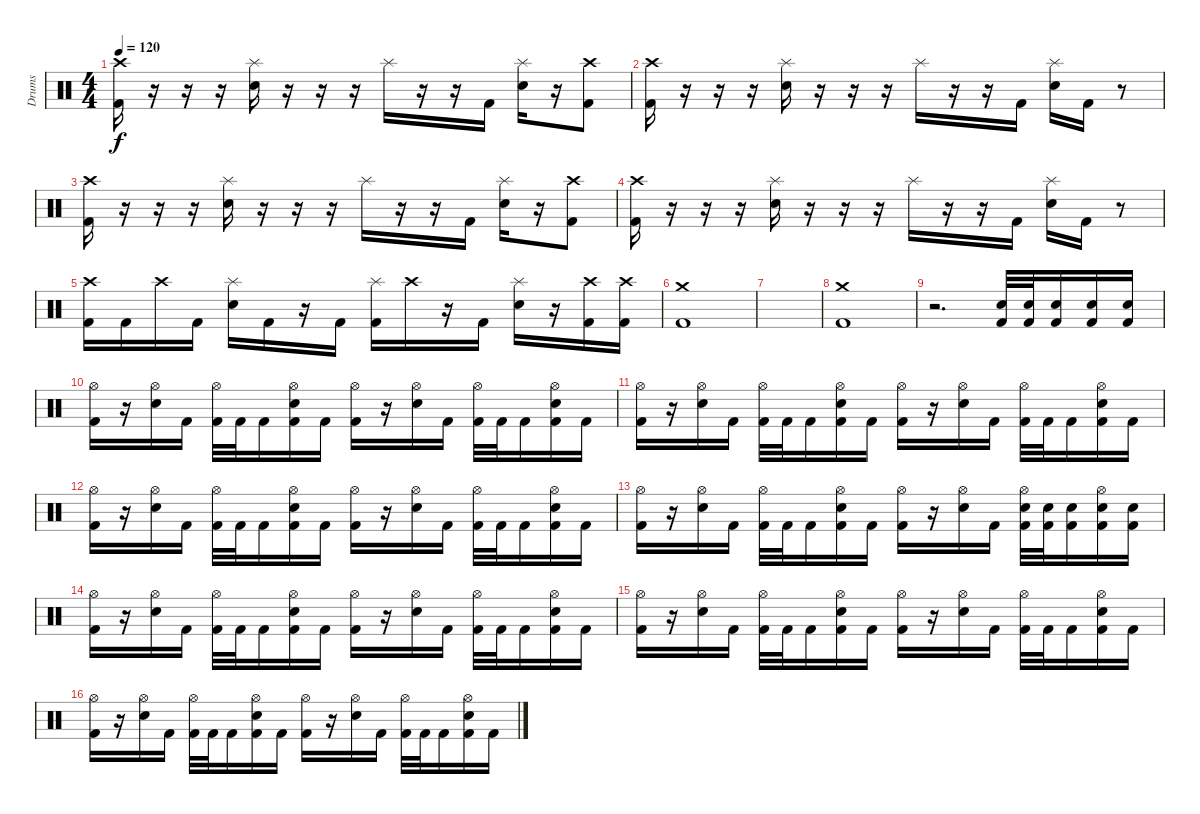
\track ("Drums" "Drums") {instrument percussion}
\staff {score}
\articulation defaults
\ts (4 4)
\tempo 120
\clef neutral
\ks c
("Crash high (hit)" "Kick (hit) 2").16{dy f} r.16 r.16 r.16 ("Splash (hit)" "Snare (hit) 2").16 r.16 r.16 r.16 "Splash (hit)".16 r.16 r.16 "Kick (hit) 2".16 ("Splash (hit)" "Snare (hit) 2").16 r.16 ("Crash high (hit)" "Kick (hit) 2").8 |
("Crash high (hit)" "Kick (hit) 2").16 r.16 r.16 r.16 ("Splash (hit)" "Snare (hit) 2").16 r.16 r.16 r.16 "Splash (hit)".16 r.16 r.16 "Kick (hit) 2".16 ("Splash (hit)" "Snare (hit) 2").16 "Kick (hit) 2".16 r.8 |
("Crash high (hit)" "Kick (hit) 2").16 r.16 r.16 r.16 ("Splash (hit)" "Snare (hit) 2").16 r.16 r.16 r.16 "Splash (hit)".16 r.16 r.16 "Kick (hit) 2".16 ("Splash (hit)" "Snare (hit) 2").16 r.16 ("Crash high (hit)" "Kick (hit) 2").8 |
("Crash high (hit)" "Kick (hit) 2").16 r.16 r.16 r.16 ("Splash (hit)" "Snare (hit) 2").16 r.16 r.16 r.16 "Splash (hit)".16 r.16 r.16 "Kick (hit) 2".16 ("Splash (hit)" "Snare (hit) 2").16 "Kick (hit) 2".16 r.8 |
("Crash high (hit)" "Kick (hit) 2").16 "Kick (hit) 2".16 "Crash high (hit)".16 "Kick (hit) 2".16 ("Splash (hit)" "Snare (hit) 2").16 "Kick (hit) 2".16 r.16 "Kick (hit) 2".16 ("Splash (hit)" "Kick (hit) 2").16 "Crash high (hit)".16 r.16 "Kick (hit) 2".16 ("Splash (hit)" "Snare (hit) 2").16 r.16 ("Crash high (hit)" "Kick (hit) 2").16 ("Crash high (hit)" "Kick (hit) 2").16 |
("Crash medium (hit)" "Kick (hit) 2").1 |
|
("Crash medium (hit)" "Kick (hit) 2").1 |
r.2{d} ("Snare (hit) 2" "Kick (hit) 2").32 ("Snare (hit) 2" "Kick (hit) 2").32 ("Snare (hit) 2" "Kick (hit) 2").16 ("Snare (hit) 2" "Kick (hit) 2").16 ("Snare (hit) 2" "Kick (hit) 2").16 |
("Hi-Hat (open)" "Kick (hit) 2").16 r.16 ("Hi-Hat (open)" "Snare (hit) 2").16 "Kick (hit) 2".16 ("Hi-Hat (open)" "Kick (hit) 2").32 "Kick (hit) 2".32 "Kick (hit) 2".16 ("Hi-Hat (open)" "Snare (hit) 2" "Kick (hit) 2").16 "Kick (hit) 2".16 ("Hi-Hat (open)" "Kick (hit) 2").16 r.16 ("Hi-Hat (open)" "Snare (hit) 2").16 "Kick (hit) 2".16 ("Hi-Hat (open)" "Kick (hit) 2").32 "Kick (hit) 2".32 "Kick (hit) 2".16 ("Hi-Hat (open)" "Snare (hit) 2" "Kick (hit) 2").16 "Kick (hit) 2".16 |
("Hi-Hat (open)" "Kick (hit) 2").16 r.16 ("Hi-Hat (open)" "Snare (hit) 2").16 "Kick (hit) 2".16 ("Hi-Hat (open)" "Kick (hit) 2").32 "Kick (hit) 2".32 "Kick (hit) 2".16 ("Hi-Hat (open)" "Snare (hit) 2" "Kick (hit) 2").16 "Kick (hit) 2".16 ("Hi-Hat (open)" "Kick (hit) 2").16 r.16 ("Hi-Hat (open)" "Snare (hit) 2").16 "Kick (hit) 2".16 ("Hi-Hat (open)" "Kick (hit) 2").32 "Kick (hit) 2".32 "Kick (hit) 2".16 ("Hi-Hat (open)" "Snare (hit) 2" "Kick (hit) 2").16 "Kick (hit) 2".16 |
("Hi-Hat (open)" "Kick (hit) 2").16 r.16 ("Hi-Hat (open)" "Snare (hit) 2").16 "Kick (hit) 2".16 ("Hi-Hat (open)" "Kick (hit) 2").32 "Kick (hit) 2".32 "Kick (hit) 2".16 ("Hi-Hat (open)" "Snare (hit) 2" "Kick (hit) 2").16 "Kick (hit) 2".16 ("Hi-Hat (open)" "Kick (hit) 2").16 r.16 ("Hi-Hat (open)" "Snare (hit) 2").16 "Kick (hit) 2".16 ("Hi-Hat (open)" "Kick (hit) 2").32 "Kick (hit) 2".32 "Kick (hit) 2".16 ("Hi-Hat (open)" "Snare (hit) 2" "Kick (hit) 2").16 "Kick (hit) 2".16 |
("Hi-Hat (open)" "Kick (hit) 2").16 r.16 ("Hi-Hat (open)" "Snare (hit) 2").16 "Kick (hit) 2".16 ("Hi-Hat (open)" "Kick (hit) 2").32 "Kick (hit) 2".32 "Kick (hit) 2".16 ("Hi-Hat (open)" "Snare (hit) 2" "Kick (hit) 2").16 "Kick (hit) 2".16 ("Hi-Hat (open)" "Kick (hit) 2").16 r.16 ("Hi-Hat (open)" "Snare (hit) 2").16 "Kick (hit) 2".16 ("Hi-Hat (open)" "Snare (hit) 2" "Kick (hit) 2").32 ("Snare (hit) 2" "Kick (hit) 2").32 ("Snare (hit) 2" "Kick (hit) 2").16 ("Hi-Hat (open)" "Snare (hit) 2" "Kick (hit) 2").16 ("Snare (hit) 2" "Kick (hit) 2").16 |
("Hi-Hat (open)" "Kick (hit) 2").16 r.16 ("Hi-Hat (open)" "Snare (hit) 2").16 "Kick (hit) 2".16 ("Hi-Hat (open)" "Kick (hit) 2").32 "Kick (hit) 2".32 "Kick (hit) 2".16 ("Hi-Hat (open)" "Snare (hit) 2" "Kick (hit) 2").16 "Kick (hit) 2".16 ("Hi-Hat (open)" "Kick (hit) 2").16 r.16 ("Hi-Hat (open)" "Snare (hit) 2").16 "Kick (hit) 2".16 ("Hi-Hat (open)" "Kick (hit) 2").32 "Kick (hit) 2".32 "Kick (hit) 2".16 ("Hi-Hat (open)" "Snare (hit) 2" "Kick (hit) 2").16 "Kick (hit) 2".16 |
("Hi-Hat (open)" "Kick (hit) 2").16 r.16 ("Hi-Hat (open)" "Snare (hit) 2").16 "Kick (hit) 2".16 ("Hi-Hat (open)" "Kick (hit) 2").32 "Kick (hit) 2".32 "Kick (hit) 2".16 ("Hi-Hat (open)" "Snare (hit) 2" "Kick (hit) 2").16 "Kick (hit) 2".16 ("Hi-Hat (open)" "Kick (hit) 2").16 r.16 ("Hi-Hat (open)" "Snare (hit) 2").16 "Kick (hit) 2".16 ("Hi-Hat (open)" "Kick (hit) 2").32 "Kick (hit) 2".32 "Kick (hit) 2".16 ("Hi-Hat (open)" "Snare (hit) 2" "Kick (hit) 2").16 "Kick (hit) 2".16 |
("Hi-Hat (open)" "Kick (hit) 2").16 r.16 ("Hi-Hat (open)" "Snare (hit) 2").16 "Kick (hit) 2".16 ("Hi-Hat (open)" "Kick (hit) 2").32 "Kick (hit) 2".32 "Kick (hit) 2".16 ("Hi-Hat (open)" "Snare (hit) 2" "Kick (hit) 2").16 "Kick (hit) 2".16 ("Hi-Hat (open)" "Kick (hit) 2").16 r.16 ("Hi-Hat (open)" "Snare (hit) 2").16 "Kick (hit) 2".16 ("Hi-Hat (open)" "Kick (hit) 2").32 "Kick (hit) 2".32 "Kick (hit) 2".16 ("Hi-Hat (open)" "Snare (hit) 2" "Kick (hit) 2").16 "Kick (hit) 2".16
